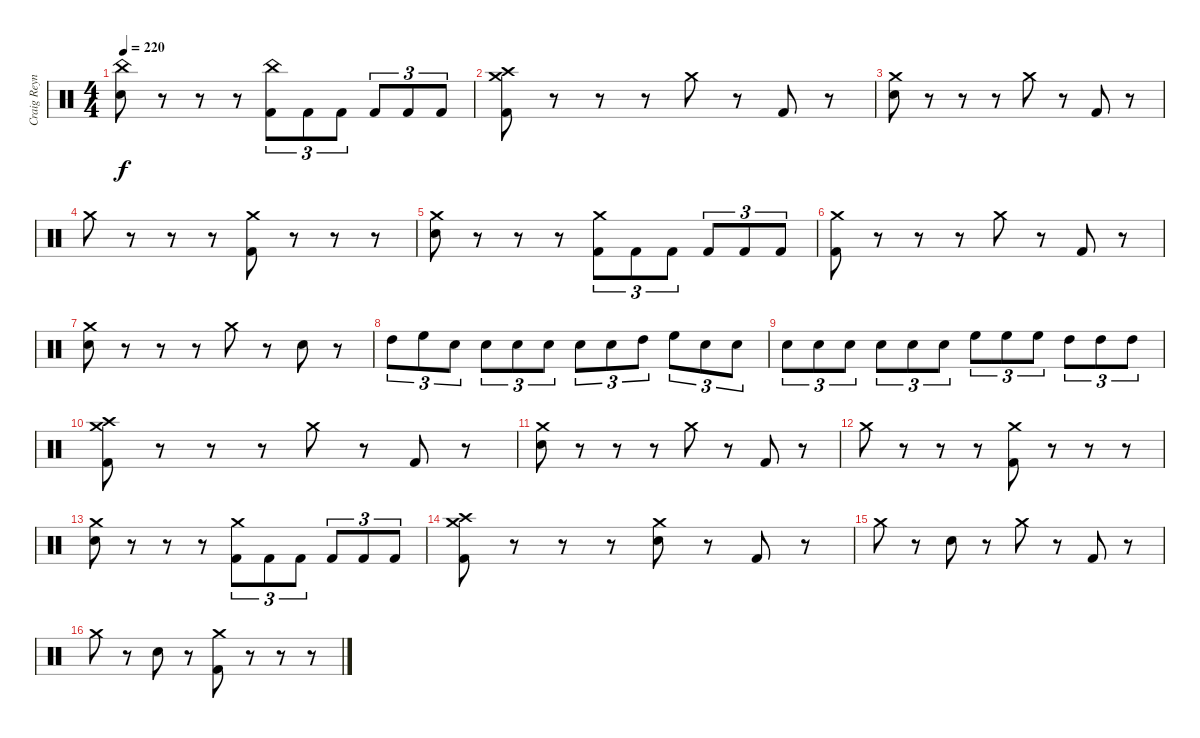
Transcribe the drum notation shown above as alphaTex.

\track ("Craig Reynolds" "Craig Reyn") {instrument percussion}
\staff {score}
\articulation defaults
\ts (4 4)
\tempo 220
\clef neutral
\ks c
("China (hit)" "Electric Snare (hit)").8{dy f} r.8 r.8 r.8 ("China (hit)" "Kick (hit) 2").8{tu (3 2)} "Kick (hit) 2".8{tu (3 2)} "Kick (hit) 2".8{tu (3 2)} "Kick (hit) 2".8{tu (3 2)} "Kick (hit) 2".8{tu (3 2)} "Kick (hit) 2".8{tu (3 2)} |
("Crash medium (hit)" "Crash high (hit)" "Kick (hit) 2").8 r.8 r.8 r.8 "Crash medium (hit)".8 r.8 "Kick (hit) 2".8 r.8 |
("Crash medium (hit)" "Electric Snare (hit)").8 r.8 r.8 r.8 "Crash medium (hit)".8 r.8 "Kick (hit) 2".8 r.8 |
"Crash medium (hit)".8 r.8 r.8 r.8 ("Crash medium (hit)" "Kick (hit) 2").8 r.8 r.8 r.8 |
("Crash medium (hit)" "Electric Snare (hit)").8 r.8 r.8 r.8 ("Crash medium (hit)" "Kick (hit) 2").8{tu (3 2)} "Kick (hit) 2".8{tu (3 2)} "Kick (hit) 2".8{tu (3 2)} "Kick (hit) 2".8{tu (3 2)} "Kick (hit) 2".8{tu (3 2)} "Kick (hit) 2".8{tu (3 2)} |
("Crash medium (hit)" "Kick (hit) 2").8 r.8 r.8 r.8 "Crash medium (hit)".8 r.8 "Kick (hit) 2".8 r.8 |
("Crash medium (hit)" "Electric Snare (hit)").8 r.8 r.8 r.8 "Crash medium (hit)".8 r.8 "Electric Snare (hit)".8 r.8 |
"High Tom (hit)".8{tu (3 2)} "High Floor Tom (hit)".8{tu (3 2)} "Electric Snare (hit)".8{tu (3 2)} "Electric Snare (hit)".8{tu (3 2)} "Electric Snare (hit)".8{tu (3 2)} "Electric Snare (hit)".8{tu (3 2)} "Electric Snare (hit)".8{tu (3 2)} "Electric Snare (hit)".8{tu (3 2)} "High Tom (hit)".8{tu (3 2)} "High Floor Tom (hit)".8{tu (3 2)} "Electric Snare (hit)".8{tu (3 2)} "Electric Snare (hit)".8{tu (3 2)} |
"Electric Snare (hit)".8{tu (3 2)} "Electric Snare (hit)".8{tu (3 2)} "Electric Snare (hit)".8{tu (3 2)} "Electric Snare (hit)".8{tu (3 2)} "Electric Snare (hit)".8{tu (3 2)} "Electric Snare (hit)".8{tu (3 2)} "High Floor Tom (hit)".8{tu (3 2)} "High Floor Tom (hit)".8{tu (3 2)} "High Floor Tom (hit)".8{tu (3 2)} "High Tom (hit)".8{tu (3 2)} "High Tom (hit)".8{tu (3 2)} "High Tom (hit)".8{tu (3 2)} |
("Crash medium (hit)" "Crash high (hit)" "Kick (hit) 2").8 r.8 r.8 r.8 "Crash medium (hit)".8 r.8 "Kick (hit) 2".8 r.8 |
("Crash medium (hit)" "Electric Snare (hit)").8 r.8 r.8 r.8 "Crash medium (hit)".8 r.8 "Kick (hit) 2".8 r.8 |
"Crash medium (hit)".8 r.8 r.8 r.8 ("Crash medium (hit)" "Kick (hit) 2").8 r.8 r.8 r.8 |
("Crash medium (hit)" "Electric Snare (hit)").8 r.8 r.8 r.8 ("Crash medium (hit)" "Kick (hit) 2").8{tu (3 2)} "Kick (hit) 2".8{tu (3 2)} "Kick (hit) 2".8{tu (3 2)} "Kick (hit) 2".8{tu (3 2)} "Kick (hit) 2".8{tu (3 2)} "Kick (hit) 2".8{tu (3 2)} |
("Crash medium (hit)" "Crash high (hit)" "Kick (hit) 2").8 r.8 r.8 r.8 ("Crash medium (hit)" "Electric Snare (hit)").8 r.8 "Kick (hit) 2".8 r.8 |
"Crash medium (hit)".8 r.8 "Electric Snare (hit)".8 r.8 "Crash medium (hit)".8 r.8 "Kick (hit) 2".8 r.8 |
"Crash medium (hit)".8 r.8 "Electric Snare (hit)".8 r.8 ("Crash medium (hit)" "Kick (hit) 2").8 r.8 r.8 r.8
